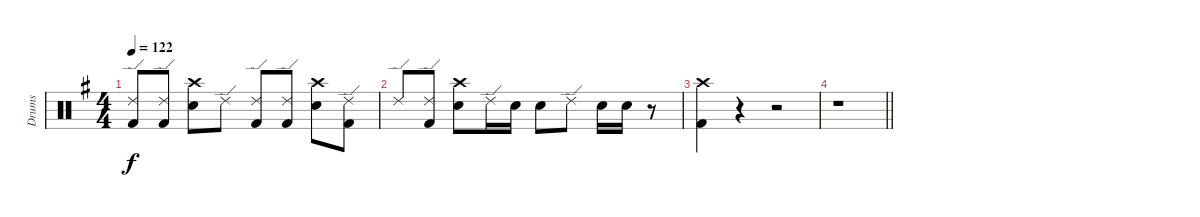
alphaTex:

\track ("Drums" "Drums") {instrument percussion}
\staff {score}
\articulation defaults
\ts (4 4)
\tempo 122
\clef neutral
\ks g
("Ride (edge) 2" "Kick (hit) 2").8{dy f} ("Ride (edge) 2" "Kick (hit) 2").8 ("Crash high (hit)" "Electric Snare (hit)").8 "Ride (edge) 2".8 ("Ride (edge) 2" "Kick (hit) 2").8 ("Ride (edge) 2" "Kick (hit) 2").8 ("Crash high (hit)" "Electric Snare (hit)").8 ("Ride (edge) 2" "Kick (hit) 2").8 |
"Ride (edge) 2".8 ("Ride (edge) 2" "Kick (hit) 2").8 ("Crash high (hit)" "Electric Snare (hit)").8 "Ride (edge) 2".16 "Electric Snare (hit)".16 "Electric Snare (hit)".8 "Ride (edge) 2".8 "Electric Snare (hit)".16 "Electric Snare (hit)".16 r.8 |
("Crash high (hit)" "Kick (hit) 2").4 r.4 r.2 |
\barLineRight lightlight
r.1
